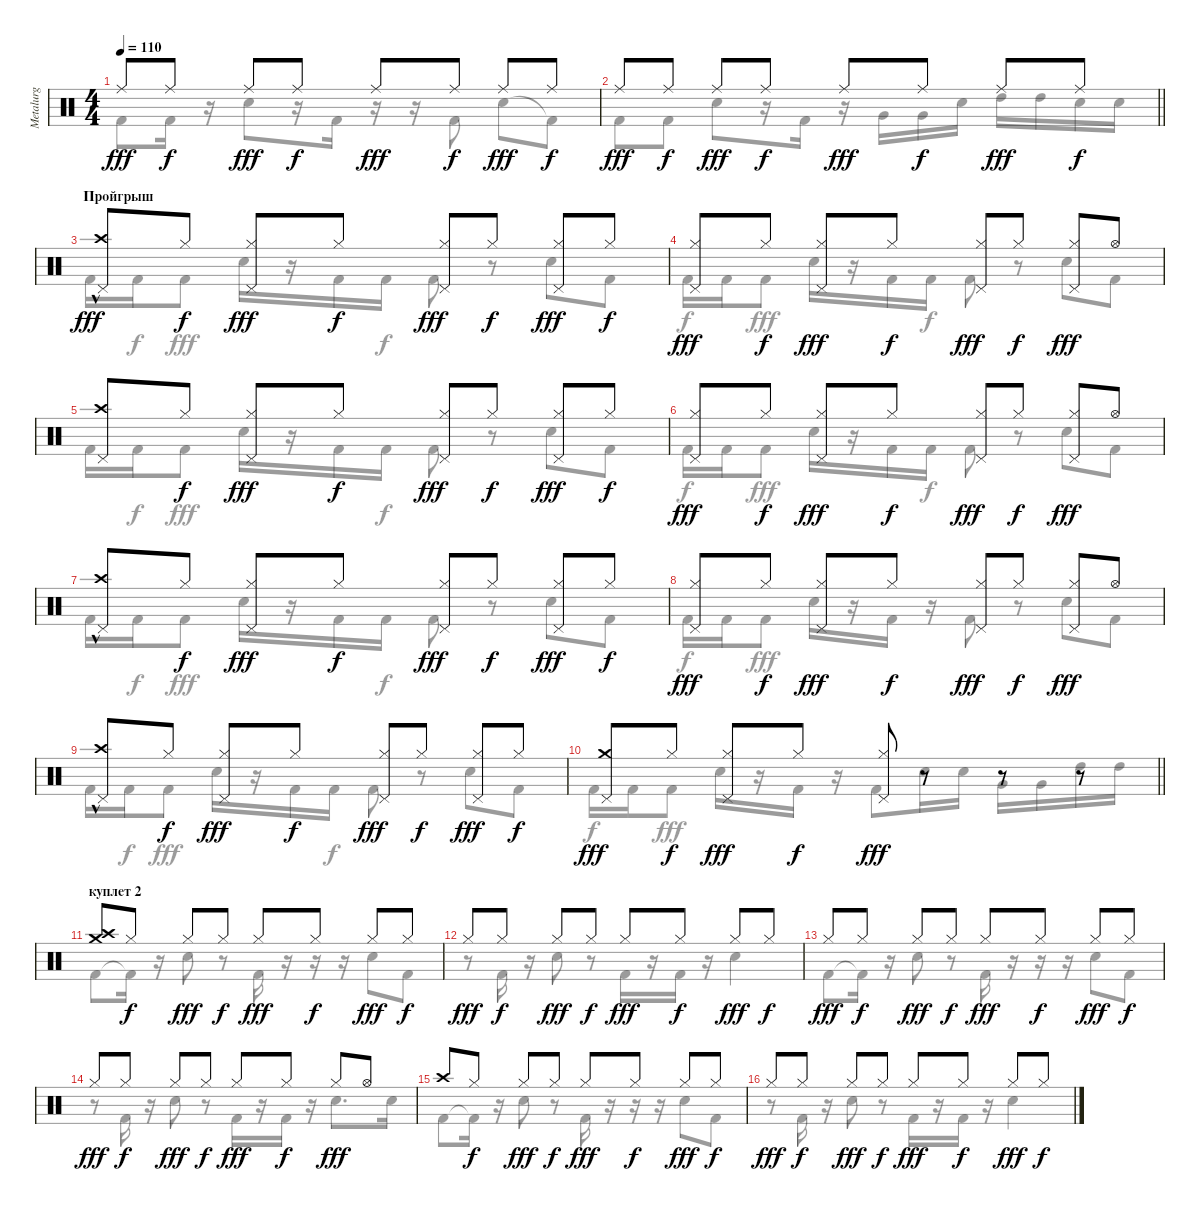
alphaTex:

\track ("Metalurg" "Metalurg") {instrument percussion}
\staff {score}
\articulation defaults
\voice
\ts (4 4)
\tempo 110
\clef neutral
\ks c "Ride (middle)".8{dy fff} "Ride (middle)".8{dy f} "Ride (middle)".8{dy fff} "Ride (middle)".8{dy f} "Ride (middle)".8{dy fff} "Ride (middle)".8{dy f} "Ride (middle)".8{dy fff} "Ride (middle)".8{dy f}
|
\barLineRight lightlight "Ride (middle)".8{dy fff} "Ride (middle)".8{dy f} "Ride (middle)".8{dy fff} "Ride (middle)".8{dy f} "Ride (middle)".8{dy fff} "Ride (middle)".8{dy f} "Ride (middle)".8{dy fff} "Ride (middle)".8{dy f}
|
\section ("" "Пройгрыш")
("Crash high (hit)"{hac} "Pedal Hi-Hat (hit)").8{dy fff} "Hi-Hat (closed)".8{dy f} ("Hi-Hat (closed)" "Pedal Hi-Hat (hit)").8{dy fff} "Hi-Hat (closed)".8{dy f} ("Hi-Hat (closed)" "Pedal Hi-Hat (hit)").8{dy fff} "Hi-Hat (closed)".8{dy f} ("Hi-Hat (closed)" "Pedal Hi-Hat (hit)").8{dy fff} "Hi-Hat (closed)".8{dy f} |
("Hi-Hat (closed)" "Pedal Hi-Hat (hit)").8{dy fff} "Hi-Hat (closed)".8{dy f} ("Hi-Hat (closed)" "Pedal Hi-Hat (hit)").8{dy fff} "Hi-Hat (closed)".8{dy f} ("Hi-Hat (closed)" "Pedal Hi-Hat (hit)").8{dy fff} "Hi-Hat (closed)".8{dy f} ("Hi-Hat (closed)" "Pedal Hi-Hat (hit)").8{dy fff} "Hi-Hat (open)".8 |
("Crash high (hit)" "Pedal Hi-Hat (hit)").8 "Hi-Hat (closed)".8{dy f} ("Hi-Hat (closed)" "Pedal Hi-Hat (hit)").8{dy fff} "Hi-Hat (closed)".8{dy f} ("Hi-Hat (closed)" "Pedal Hi-Hat (hit)").8{dy fff} "Hi-Hat (closed)".8{dy f} ("Hi-Hat (closed)" "Pedal Hi-Hat (hit)").8{dy fff} "Hi-Hat (closed)".8{dy f} |
("Hi-Hat (closed)" "Pedal Hi-Hat (hit)").8{dy fff} "Hi-Hat (closed)".8{dy f} ("Hi-Hat (closed)" "Pedal Hi-Hat (hit)").8{dy fff} "Hi-Hat (closed)".8{dy f} ("Hi-Hat (closed)" "Pedal Hi-Hat (hit)").8{dy fff} "Hi-Hat (closed)".8{dy f} ("Hi-Hat (closed)" "Pedal Hi-Hat (hit)").8{dy fff} "Hi-Hat (open)".8 |
("Crash high (hit)"{hac} "Pedal Hi-Hat (hit)").8 "Hi-Hat (closed)".8{dy f} ("Hi-Hat (closed)" "Pedal Hi-Hat (hit)").8{dy fff} "Hi-Hat (closed)".8{dy f} ("Hi-Hat (closed)" "Pedal Hi-Hat (hit)").8{dy fff} "Hi-Hat (closed)".8{dy f} ("Hi-Hat (closed)" "Pedal Hi-Hat (hit)").8{dy fff} "Hi-Hat (closed)".8{dy f} |
("Hi-Hat (closed)" "Pedal Hi-Hat (hit)").8{dy fff} "Hi-Hat (closed)".8{dy f} ("Hi-Hat (closed)" "Pedal Hi-Hat (hit)").8{dy fff} "Hi-Hat (closed)".8{dy f} ("Hi-Hat (closed)" "Pedal Hi-Hat (hit)").8{dy fff} "Hi-Hat (closed)".8{dy f} ("Hi-Hat (closed)" "Pedal Hi-Hat (hit)").8{dy fff} "Hi-Hat (open)".8 |
("Crash high (hit)"{hac} "Pedal Hi-Hat (hit)").8 "Hi-Hat (closed)".8{dy f} ("Hi-Hat (closed)" "Pedal Hi-Hat (hit)").8{dy fff} "Hi-Hat (closed)".8{dy f} ("Hi-Hat (closed)" "Pedal Hi-Hat (hit)").8{dy fff} "Hi-Hat (closed)".8{dy f} ("Hi-Hat (closed)" "Pedal Hi-Hat (hit)").8{dy fff} "Hi-Hat (closed)".8{dy f} |
\barLineRight lightlight
("Crash medium (hit)" "Pedal Hi-Hat (hit)").8{dy fff} "Hi-Hat (closed)".8{dy f} ("Hi-Hat (closed)" "Pedal Hi-Hat (hit)").8{dy fff} "Hi-Hat (closed)".8{dy f} ("Hi-Hat (closed)" "Pedal Hi-Hat (hit)").8{dy fff} r.8 r.8 r.8 |
\section ("" "куплет 2")
("Crash high (hit)" "Crash medium (hit)").8 "Hi-Hat (closed)".8{dy f} "Hi-Hat (closed)".8{dy fff} "Hi-Hat (closed)".8{dy f} "Hi-Hat (closed)".8{dy fff} "Hi-Hat (closed)".8{dy f} "Hi-Hat (closed)".8{dy fff} "Hi-Hat (closed)".8{dy f} |
"Hi-Hat (closed)".8{dy fff} "Hi-Hat (closed)".8{dy f} "Hi-Hat (closed)".8{dy fff} "Hi-Hat (closed)".8{dy f} "Hi-Hat (closed)".8{dy fff} "Hi-Hat (closed)".8{dy f} "Hi-Hat (closed)".8{dy fff} "Hi-Hat (closed)".8{dy f} |
"Hi-Hat (closed)".8{dy fff} "Hi-Hat (closed)".8{dy f} "Hi-Hat (closed)".8{dy fff} "Hi-Hat (closed)".8{dy f} "Hi-Hat (closed)".8{dy fff} "Hi-Hat (closed)".8{dy f} "Hi-Hat (closed)".8{dy fff} "Hi-Hat (closed)".8{dy f} |
"Hi-Hat (closed)".8{dy fff} "Hi-Hat (closed)".8{dy f} "Hi-Hat (closed)".8{dy fff} "Hi-Hat (closed)".8{dy f} "Hi-Hat (closed)".8{dy fff} "Hi-Hat (closed)".8{dy f} "Hi-Hat (closed)".8{dy fff} "Hi-Hat (open)".8 |
"Crash high (hit)".8 "Hi-Hat (closed)".8{dy f} "Hi-Hat (closed)".8{dy fff} "Hi-Hat (closed)".8{dy f} "Hi-Hat (closed)".8{dy fff} "Hi-Hat (closed)".8{dy f} "Hi-Hat (closed)".8{dy fff} "Hi-Hat (closed)".8{dy f} |
"Hi-Hat (closed)".8{dy fff} "Hi-Hat (closed)".8{dy f} "Hi-Hat (closed)".8{dy fff} "Hi-Hat (closed)".8{dy f} "Hi-Hat (closed)".8{dy fff} "Hi-Hat (closed)".8{dy f} "Hi-Hat (closed)".8{dy fff} "Hi-Hat (closed)".8{dy f}
\voice
\clef neutral
\ottava regular
\simile none
\ks c "Kick (hit) 2".8{dy fff} "Kick (hit) 2".16
r.16 "Snare (hit) 2".8 r.16 "Kick (hit) 2".16 r.16 r.16 "Kick (hit) 2".8 "Snare (hit) 2".8 "Kick (hit) 2"{t}.8 |
\barLineRight lightlight "Kick (hit) 2".8 "Kick (hit) 2".8 "Snare (hit) 2".8
r.16 "Kick (hit) 2".16 r.16 "Very Low Tom (hit)".16 "Very Low Tom (hit)".16 "Snare (hit) 2".16 "High Tom (hit)".16 "High Tom (hit)".16 "Snare (hit) 2".16 "Snare (hit) 2".16 |
"Kick (hit) 2".16 "Kick (hit) 2".16{dy f} "Kick (hit) 2".8{dy fff} "Snare (hit) 2".16 r.16 "Kick (hit) 2".16 "Kick (hit) 2".16{dy f} "Kick (hit) 2".8{dy fff} r.8 "Snare (hit) 2".8 "Kick (hit) 2".8 |
"Kick (hit) 2".16{dy f} "Kick (hit) 2".16 "Kick (hit) 2".8{dy fff} "Snare (hit) 2".16 r.16 "Kick (hit) 2".16 "Kick (hit) 2".16{dy f} "Kick (hit) 2".8{dy fff} r.8 "Snare (hit) 2".8 "Kick (hit) 2".8 |
"Kick (hit) 2".16 "Kick (hit) 2".16{dy f} "Kick (hit) 2".8{dy fff} "Snare (hit) 2".16 r.16 "Kick (hit) 2".16 "Kick (hit) 2".16{dy f} "Kick (hit) 2".8{dy fff} r.8 "Snare (hit) 2".8 "Kick (hit) 2".8 |
"Kick (hit) 2".16{dy f} "Kick (hit) 2".16 "Kick (hit) 2".8{dy fff} "Snare (hit) 2".16 r.16 "Kick (hit) 2".16 "Kick (hit) 2".16{dy f} "Kick (hit) 2".8{dy fff} r.8 "Snare (hit) 2".8 "Kick (hit) 2".8 |
"Kick (hit) 2".16 "Kick (hit) 2".16{dy f} "Kick (hit) 2".8{dy fff} "Snare (hit) 2".16 r.16 "Kick (hit) 2".16 "Kick (hit) 2".16{dy f} "Kick (hit) 2".8{dy fff} r.8 "Snare (hit) 2".8 "Kick (hit) 2".8 |
"Kick (hit) 2".16{dy f} "Kick (hit) 2".16 "Kick (hit) 2".8{dy fff} "Snare (hit) 2".16 r.16 "Kick (hit) 2".16 r.16 "Kick (hit) 2".8 r.8 "Snare (hit) 2".8 "Kick (hit) 2".8 |
"Kick (hit) 2".16 "Kick (hit) 2".16{dy f} "Kick (hit) 2".8{dy fff} "Snare (hit) 2".16 r.16 "Kick (hit) 2".16 "Kick (hit) 2".16{dy f} "Kick (hit) 2".8{dy fff} r.8 "Snare (hit) 2".8 "Kick (hit) 2".8 |
\barLineRight lightlight "Kick (hit) 2".16{dy f} "Kick (hit) 2".16 "Kick (hit) 2".8{dy fff} "Snare (hit) 2".16
r.16 "Kick (hit) 2".16 r.16 "Kick (hit) 2".8 "Snare (hit) 2".16 "Snare (hit) 2".16 "Very Low Tom (hit)".16 "Very Low Tom (hit)".16 "High Tom (hit)".16 "High Tom (hit)".16 |
"Kick (hit) 2".8 "Kick (hit) 2"{t}.16 r.16 "Snare (hit) 2".8 r.8 "Kick (hit) 2".16 r.16 r.16 r.16 "Snare (hit) 2".8 "Kick (hit) 2".8 |
r.8 "Kick (hit) 2".16 r.16 "Snare (hit) 2".8 r.8 "Kick (hit) 2".16 r.16 "Kick (hit) 2".16 r.16 "Snare (hit) 2".4 |
"Kick (hit) 2".8 "Kick (hit) 2"{t}.16 r.16 "Snare (hit) 2".8 r.8 "Kick (hit) 2".16 r.16 r.16 r.16 "Snare (hit) 2".8 "Kick (hit) 2".8 |
r.8 "Kick (hit) 2".16 r.16 "Snare (hit) 2".8 r.8 "Kick (hit) 2".16 r.16 "Kick (hit) 2".16 r.16 "Snare (hit) 2".8{d} "Snare (hit) 2".16 |
"Kick (hit) 2".8 "Kick (hit) 2"{t}.16 r.16 "Snare (hit) 2".8 r.8 "Kick (hit) 2".16 r.16 r.16 r.16 "Snare (hit) 2".8 "Kick (hit) 2".8 |
r.8 "Kick (hit) 2".16 r.16 "Snare (hit) 2".8 r.8 "Kick (hit) 2".16 r.16 "Kick (hit) 2".16 r.16 "Snare (hit) 2".4
